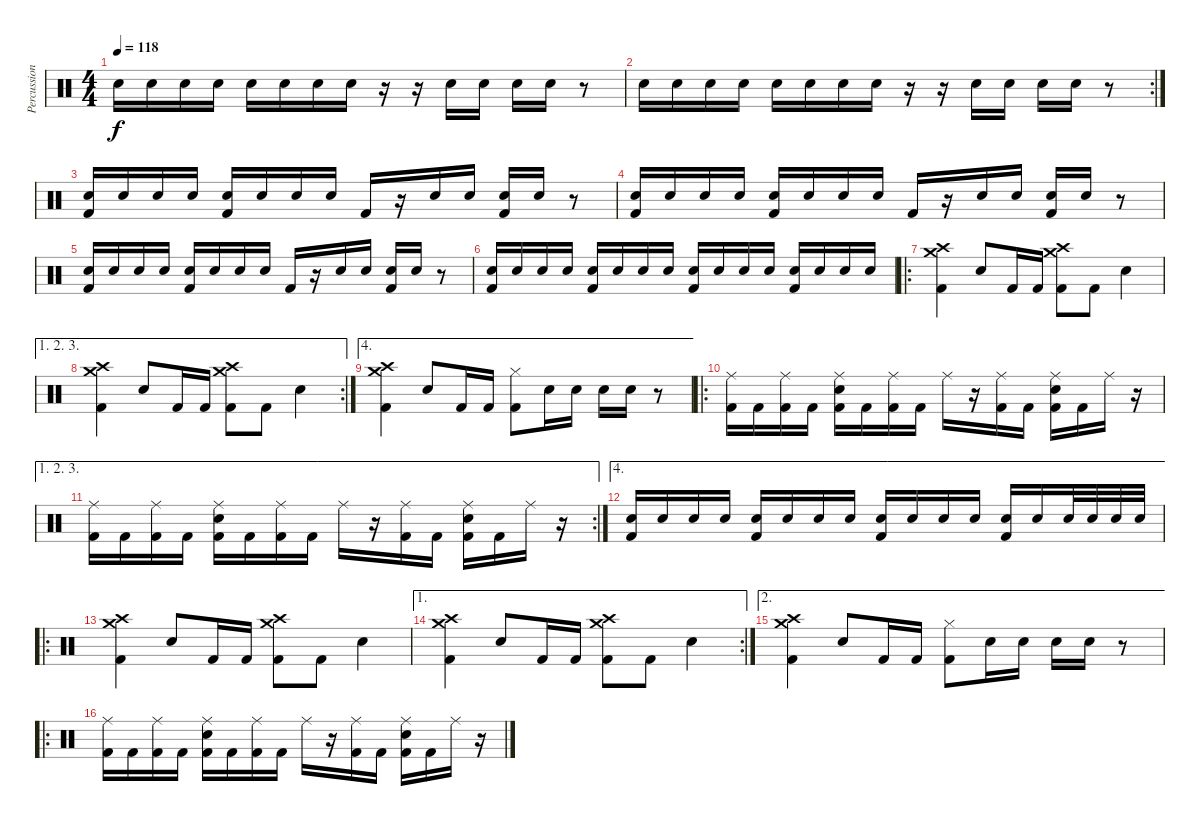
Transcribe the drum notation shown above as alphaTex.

\track ("Percussion" "Percussion") {instrument percussion}
\staff {score}
\articulation defaults
\ts (4 4)
\tempo 118
\clef neutral
\ks c "Snare (hit) 2".16{dy f} "Snare (hit) 2".16 "Snare (hit) 2".16 "Snare (hit) 2".16 "Snare (hit) 2".16 "Snare (hit) 2".16 "Snare (hit) 2".16 "Snare (hit) 2".16
r.16 r.16 "Snare (hit) 2".16 "Snare (hit) 2".16 "Snare (hit) 2".16 "Snare (hit) 2".16 r.8 |
\rc 2 "Snare (hit) 2".16 "Snare (hit) 2".16 "Snare (hit) 2".16 "Snare (hit) 2".16 "Snare (hit) 2".16 "Snare (hit) 2".16 "Snare (hit) 2".16 "Snare (hit) 2".16
r.16 r.16 "Snare (hit) 2".16 "Snare (hit) 2".16 "Snare (hit) 2".16 "Snare (hit) 2".16 r.8 |
("Snare (hit) 2" "Kick (hit) 2").16 "Snare (hit) 2".16 "Snare (hit) 2".16 "Snare (hit) 2".16 ("Snare (hit) 2" "Kick (hit) 2").16 "Snare (hit) 2".16 "Snare (hit) 2".16 "Snare (hit) 2".16 "Kick (hit) 2".16 r.16 "Snare (hit) 2".16 "Snare (hit) 2".16 ("Snare (hit) 2" "Kick (hit) 2").16 "Snare (hit) 2".16 r.8 |
("Snare (hit) 2" "Kick (hit) 2").16 "Snare (hit) 2".16 "Snare (hit) 2".16 "Snare (hit) 2".16 ("Snare (hit) 2" "Kick (hit) 2").16 "Snare (hit) 2".16 "Snare (hit) 2".16 "Snare (hit) 2".16 "Kick (hit) 2".16 r.16 "Snare (hit) 2".16 "Snare (hit) 2".16 ("Snare (hit) 2" "Kick (hit) 2").16 "Snare (hit) 2".16 r.8 |
("Snare (hit) 2" "Kick (hit) 2").16 "Snare (hit) 2".16 "Snare (hit) 2".16 "Snare (hit) 2".16 ("Snare (hit) 2" "Kick (hit) 2").16 "Snare (hit) 2".16 "Snare (hit) 2".16 "Snare (hit) 2".16 "Kick (hit) 2".16 r.16 "Snare (hit) 2".16 "Snare (hit) 2".16 ("Snare (hit) 2" "Kick (hit) 2").16 "Snare (hit) 2".16 r.8 |
("Snare (hit) 2" "Kick (hit) 2").16 "Snare (hit) 2".16 "Snare (hit) 2".16 "Snare (hit) 2".16 ("Snare (hit) 2" "Kick (hit) 2").16 "Snare (hit) 2".16 "Snare (hit) 2".16 "Snare (hit) 2".16 ("Snare (hit) 2" "Kick (hit) 2").16 "Snare (hit) 2".16 "Snare (hit) 2".16 "Snare (hit) 2".16 ("Snare (hit) 2" "Kick (hit) 2").16 "Snare (hit) 2".16 "Snare (hit) 2".16 "Snare (hit) 2".16 |
\ro
("Crash medium (hit)" "Crash high (hit)" "Kick (hit) 2").4 "Snare (hit) 2".8 "Kick (hit) 2".16 "Kick (hit) 2".16 ("Crash medium (hit)" "Crash high (hit)" "Kick (hit) 2").8 "Kick (hit) 2".8 "Snare (hit) 2".4 |
\ae (1 2 3)
\rc 2
("Crash medium (hit)" "Crash high (hit)" "Kick (hit) 2").4 "Snare (hit) 2".8 "Kick (hit) 2".16 "Kick (hit) 2".16 ("Crash medium (hit)" "Crash high (hit)" "Kick (hit) 2").8 "Kick (hit) 2".8 "Snare (hit) 2".4 |
\ae 4
("Crash medium (hit)" "Crash high (hit)" "Kick (hit) 2").4 "Snare (hit) 2".8 "Kick (hit) 2".16 "Kick (hit) 2".16 ("Hi-Hat (closed)" "Kick (hit) 2").8 "Snare (hit) 2".16 "Snare (hit) 2".16 "Snare (hit) 2".16 "Snare (hit) 2".16 r.8 |
\ro
("Ride (middle)" "Kick (hit) 2").16 "Kick (hit) 2".16 ("Ride (middle)" "Kick (hit) 2").16 "Kick (hit) 2".16 ("Ride (middle)" "Snare (hit) 2" "Kick (hit) 2").16 "Kick (hit) 2".16 ("Ride (middle)" "Kick (hit) 2").16 "Kick (hit) 2".16 "Ride (middle)".16 r.16 ("Ride (middle)" "Kick (hit) 2").16 "Kick (hit) 2".16 ("Ride (middle)" "Snare (hit) 2" "Kick (hit) 2").16 "Kick (hit) 2".16 "Ride (middle)".16 r.16 |
\ae (1 2 3)
\rc 2
("Ride (middle)" "Kick (hit) 2").16 "Kick (hit) 2".16 ("Ride (middle)" "Kick (hit) 2").16 "Kick (hit) 2".16 ("Ride (middle)" "Snare (hit) 2" "Kick (hit) 2").16 "Kick (hit) 2".16 ("Ride (middle)" "Kick (hit) 2").16 "Kick (hit) 2".16 "Ride (middle)".16 r.16 ("Ride (middle)" "Kick (hit) 2").16 "Kick (hit) 2".16 ("Ride (middle)" "Snare (hit) 2" "Kick (hit) 2").16 "Kick (hit) 2".16 "Ride (middle)".16 r.16 |
\ae 4
("Snare (hit) 2" "Kick (hit) 2").16 "Snare (hit) 2".16 "Snare (hit) 2".16 "Snare (hit) 2".16 ("Snare (hit) 2" "Kick (hit) 2").16 "Snare (hit) 2".16 "Snare (hit) 2".16 "Snare (hit) 2".16 ("Snare (hit) 2" "Kick (hit) 2").16 "Snare (hit) 2".16 "Snare (hit) 2".16 "Snare (hit) 2".16 ("Snare (hit) 2" "Kick (hit) 2").16 "Snare (hit) 2".16 "Snare (hit) 2".32 "Snare (hit) 2".32 "Snare (hit) 2".32 "Snare (hit) 2".32 |
\ro
("Crash medium (hit)" "Crash high (hit)" "Kick (hit) 2").4 "Snare (hit) 2".8 "Kick (hit) 2".16 "Kick (hit) 2".16 ("Crash medium (hit)" "Crash high (hit)" "Kick (hit) 2").8 "Kick (hit) 2".8 "Snare (hit) 2".4 |
\ae 1
\rc 2
("Crash medium (hit)" "Crash high (hit)" "Kick (hit) 2").4 "Snare (hit) 2".8 "Kick (hit) 2".16 "Kick (hit) 2".16 ("Crash medium (hit)" "Crash high (hit)" "Kick (hit) 2").8 "Kick (hit) 2".8 "Snare (hit) 2".4 |
\ae 2
("Crash medium (hit)" "Crash high (hit)" "Kick (hit) 2").4 "Snare (hit) 2".8 "Kick (hit) 2".16 "Kick (hit) 2".16 ("Hi-Hat (closed)" "Kick (hit) 2").8 "Snare (hit) 2".16 "Snare (hit) 2".16 "Snare (hit) 2".16 "Snare (hit) 2".16 r.8 |
\ro
("Ride (middle)" "Kick (hit) 2").16 "Kick (hit) 2".16 ("Ride (middle)" "Kick (hit) 2").16 "Kick (hit) 2".16 ("Ride (middle)" "Snare (hit) 2" "Kick (hit) 2").16 "Kick (hit) 2".16 ("Ride (middle)" "Kick (hit) 2").16 "Kick (hit) 2".16 "Ride (middle)".16 r.16 ("Ride (middle)" "Kick (hit) 2").16 "Kick (hit) 2".16 ("Ride (middle)" "Snare (hit) 2" "Kick (hit) 2").16 "Kick (hit) 2".16 "Ride (middle)".16 r.16
